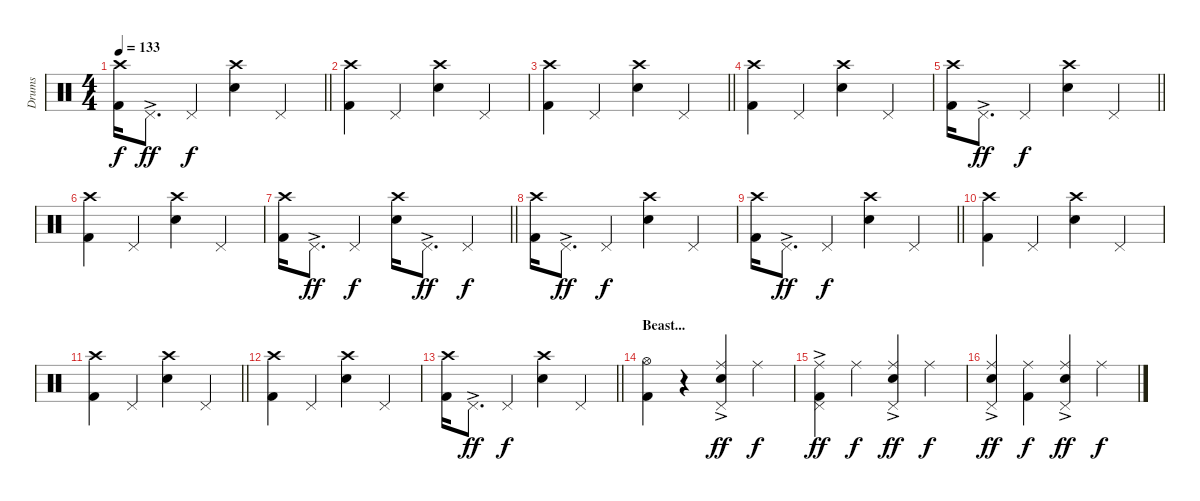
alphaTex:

\track ("Drums" "Drums") {instrument percussion}
\staff {score}
\articulation defaults
\ts (4 4)
\tempo 133
\clef neutral
\barLineRight lightlight
\ks c
("Crash high (hit)" "Kick (hit) 2").16{dy f} "Pedal Hi-Hat (hit)"{ac}.8{d dy ff} "Pedal Hi-Hat (hit)".4{dy f} ("Crash high (hit)" "Snare (hit) 2").4 "Pedal Hi-Hat (hit)".4 |
\section ("" "")
("Crash high (hit)" "Kick (hit) 2").4 "Pedal Hi-Hat (hit)".4 ("Crash high (hit)" "Snare (hit) 2").4 "Pedal Hi-Hat (hit)".4 |
\barLineRight lightlight
("Crash high (hit)" "Kick (hit) 2").4 "Pedal Hi-Hat (hit)".4 ("Crash high (hit)" "Snare (hit) 2").4 "Pedal Hi-Hat (hit)".4 |
("Crash high (hit)" "Kick (hit) 2").4 "Pedal Hi-Hat (hit)".4 ("Crash high (hit)" "Snare (hit) 2").4 "Pedal Hi-Hat (hit)".4 |
\barLineRight lightlight
("Crash high (hit)" "Kick (hit) 2").16 "Pedal Hi-Hat (hit)"{ac}.8{d dy ff} "Pedal Hi-Hat (hit)".4{dy f} ("Crash high (hit)" "Snare (hit) 2").4 "Pedal Hi-Hat (hit)".4 |
\section ("" "")
("Crash high (hit)" "Kick (hit) 2").4 "Pedal Hi-Hat (hit)".4 ("Crash high (hit)" "Snare (hit) 2").4 "Pedal Hi-Hat (hit)".4 |
\barLineRight lightlight
("Crash high (hit)" "Kick (hit) 2").16 "Pedal Hi-Hat (hit)"{ac}.8{d dy ff} "Pedal Hi-Hat (hit)".4{dy f} ("Crash high (hit)" "Snare (hit) 2").16 "Pedal Hi-Hat (hit)"{ac}.8{d dy ff} "Pedal Hi-Hat (hit)".4{dy f} |
("Crash high (hit)" "Kick (hit) 2").16 "Pedal Hi-Hat (hit)"{ac}.8{d dy ff} "Pedal Hi-Hat (hit)".4{dy f} ("Crash high (hit)" "Snare (hit) 2").4 "Pedal Hi-Hat (hit)".4 |
\barLineRight lightlight
("Crash high (hit)" "Kick (hit) 2").16 "Pedal Hi-Hat (hit)"{ac}.8{d dy ff} "Pedal Hi-Hat (hit)".4{dy f} ("Crash high (hit)" "Snare (hit) 2").4 "Pedal Hi-Hat (hit)".4 |
\section ("" "")
("Crash high (hit)" "Kick (hit) 2").4 "Pedal Hi-Hat (hit)".4 ("Crash high (hit)" "Snare (hit) 2").4 "Pedal Hi-Hat (hit)".4 |
\barLineRight lightlight
("Crash high (hit)" "Kick (hit) 2").4 "Pedal Hi-Hat (hit)".4 ("Crash high (hit)" "Snare (hit) 2").4 "Pedal Hi-Hat (hit)".4 |
("Crash high (hit)" "Kick (hit) 2").4 "Pedal Hi-Hat (hit)".4 ("Crash high (hit)" "Snare (hit) 2").4 "Pedal Hi-Hat (hit)".4 |
\barLineRight lightlight
("Crash high (hit)" "Kick (hit) 2").16 "Pedal Hi-Hat (hit)"{ac}.8{d dy ff} "Pedal Hi-Hat (hit)".4{dy f} ("Crash high (hit)" "Snare (hit) 2").4 "Pedal Hi-Hat (hit)".4 |
\section ("" "Beast...")
("Hi-Hat (open)" "Kick (hit) 2").4 r.4 ("Pedal Hi-Hat (hit)" "Ride (middle)"{ac} "Snare (hit) 2").4{dy ff} "Ride (middle)".4{dy f} |
("Pedal Hi-Hat (hit)" "Ride (middle)"{ac} "Kick (hit) 2").4{dy ff} "Ride (middle)".4{dy f} ("Pedal Hi-Hat (hit)" "Ride (middle)"{ac} "Snare (hit) 2").4{dy ff} "Ride (middle)".4{dy f} |
("Pedal Hi-Hat (hit)" "Ride (middle)"{ac} "Snare (hit) 2").4{dy ff} ("Ride (middle)" "Kick (hit) 2").4{dy f} ("Pedal Hi-Hat (hit)" "Ride (middle)"{ac} "Snare (hit) 2").4{dy ff} "Ride (middle)".4{dy f}
